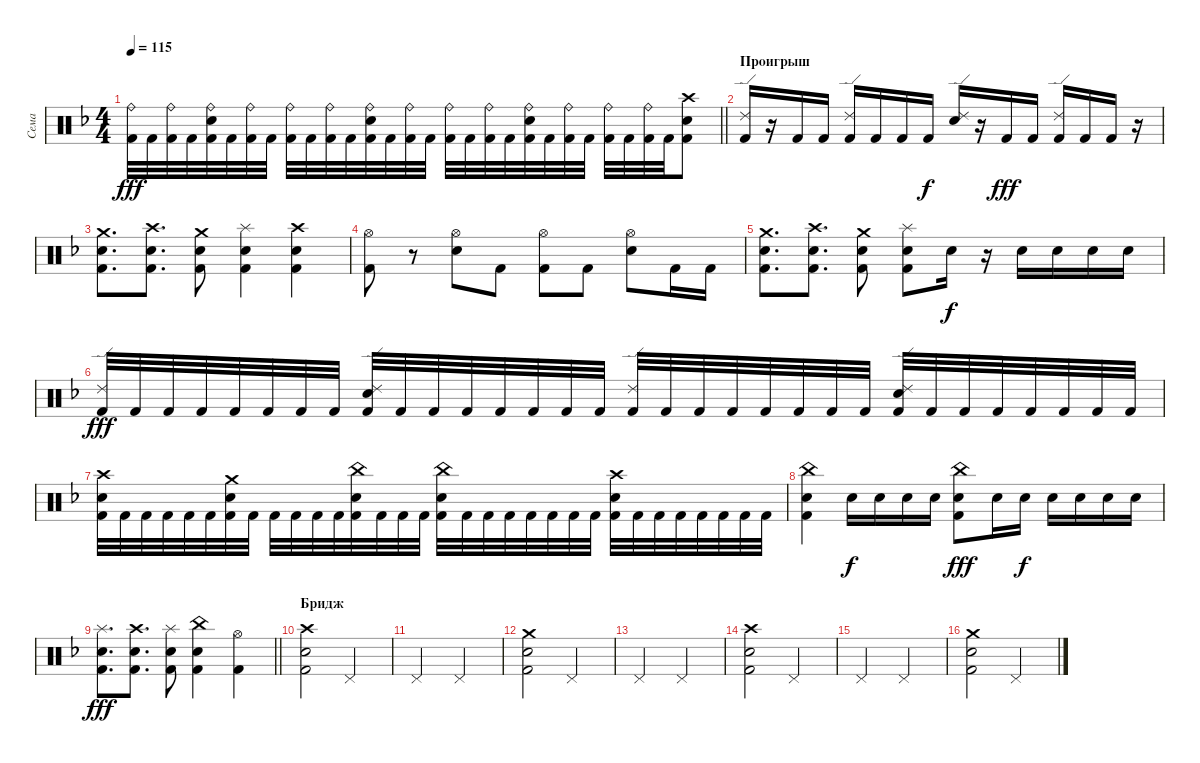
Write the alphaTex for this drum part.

\track ("Сема" "Сема") {instrument percussion}
\staff {score}
\articulation defaults
\ts (4 4)
\tempo 115
\clef neutral
\barLineRight lightlight
\ks dminor
("Ride (bell)" "Kick (hit) 2").32{dy fff} "Kick (hit) 2".32 ("Ride (bell)" "Kick (hit) 2").32 "Kick (hit) 2".32 ("Ride (bell)" "Electric Snare (hit)" "Kick (hit) 2").32 "Kick (hit) 2".32 ("Ride (bell)" "Kick (hit) 2").32 "Kick (hit) 2".32 ("Ride (bell)" "Kick (hit) 2").32 "Kick (hit) 2".32 ("Ride (bell)" "Kick (hit) 2").32 "Kick (hit) 2".32 ("Ride (bell)" "Electric Snare (hit)" "Kick (hit) 2").32 "Kick (hit) 2".32 ("Ride (bell)" "Kick (hit) 2").32 "Kick (hit) 2".32 ("Ride (bell)" "Kick (hit) 2").32 "Kick (hit) 2".32 ("Ride (bell)" "Kick (hit) 2").32 "Kick (hit) 2".32 ("Ride (bell)" "Electric Snare (hit)" "Kick (hit) 2").32 "Kick (hit) 2".32 ("Ride (bell)" "Kick (hit) 2").32 "Kick (hit) 2".32 ("Ride (bell)" "Kick (hit) 2").32 "Kick (hit) 2".32 ("Ride (bell)" "Kick (hit) 2").32 "Kick (hit) 2".32 ("Crash high (hit)" "Electric Snare (hit)" "Kick (hit) 2").8 |
\section ("" "Проигрыш")
("Ride (edge) 2" "Kick (hit) 2").16 r.16 "Kick (hit) 2".16 "Kick (hit) 2".16 ("Ride (edge) 2" "Kick (hit) 2").16 "Kick (hit) 2".16 "Kick (hit) 2".16 "Kick (hit) 2".16{dy f} ("Ride (edge) 2" "Electric Snare (hit)").16 r.16 "Kick (hit) 2".16{dy fff} "Kick (hit) 2".16 ("Ride (edge) 2" "Kick (hit) 2").16 "Kick (hit) 2".16 "Kick (hit) 2".16 r.16 |
("Crash medium (hit)" "Electric Snare (hit)" "Kick (hit) 2").8{d} ("Crash high (hit)" "Electric Snare (hit)" "Kick (hit) 2").8{d} ("Crash medium (hit)" "Electric Snare (hit)" "Kick (hit) 2").8 ("Splash (hit)" "Electric Snare (hit)" "Kick (hit) 2").4 ("Crash high (hit)" "Electric Snare (hit)" "Kick (hit) 2").4 |
("Hi-Hat (open)" "Kick (hit) 2").8 r.8 ("Hi-Hat (open)" "Electric Snare (hit)").8 "Kick (hit) 2".8 ("Hi-Hat (open)" "Kick (hit) 2").8 "Kick (hit) 2".8 ("Hi-Hat (open)" "Electric Snare (hit)").8 "Kick (hit) 2".16 "Kick (hit) 2".16 |
("Crash medium (hit)" "Electric Snare (hit)" "Kick (hit) 2").8{d} ("Crash high (hit)" "Electric Snare (hit)" "Kick (hit) 2").8{d} ("Crash medium (hit)" "Electric Snare (hit)" "Kick (hit) 2").8 ("Splash (hit)" "Electric Snare (hit)" "Kick (hit) 2").8 "Electric Snare (hit)".16{dy f} r.16 "Electric Snare (hit)".16 "Electric Snare (hit)".16 "Electric Snare (hit)".16 "Electric Snare (hit)".16 |
("Ride (edge) 2" "Kick (hit) 2").32{dy fff} "Kick (hit) 2".32 "Kick (hit) 2".32 "Kick (hit) 2".32 "Kick (hit) 2".32 "Kick (hit) 2".32 "Kick (hit) 2".32 "Kick (hit) 2".32 ("Ride (edge) 2" "Electric Snare (hit)" "Kick (hit) 2").32 "Kick (hit) 2".32 "Kick (hit) 2".32 "Kick (hit) 2".32 "Kick (hit) 2".32 "Kick (hit) 2".32 "Kick (hit) 2".32 "Kick (hit) 2".32 ("Ride (edge) 2" "Kick (hit) 2").32 "Kick (hit) 2".32 "Kick (hit) 2".32 "Kick (hit) 2".32 "Kick (hit) 2".32 "Kick (hit) 2".32 "Kick (hit) 2".32 "Kick (hit) 2".32 ("Ride (edge) 2" "Electric Snare (hit)" "Kick (hit) 2").32 "Kick (hit) 2".32 "Kick (hit) 2".32 "Kick (hit) 2".32 "Kick (hit) 2".32 "Kick (hit) 2".32 "Kick (hit) 2".32 "Kick (hit) 2".32 |
("Crash high (hit)" "Electric Snare (hit)" "Kick (hit) 2").32 "Kick (hit) 2".32 "Kick (hit) 2".32 "Kick (hit) 2".32 "Kick (hit) 2".32 "Kick (hit) 2".32 ("Crash medium (hit)" "Electric Snare (hit)" "Kick (hit) 2").32 "Kick (hit) 2".32 "Kick (hit) 2".32 "Kick (hit) 2".32 "Kick (hit) 2".32 "Kick (hit) 2".32 ("China (hit)" "Electric Snare (hit)" "Kick (hit) 2").32 "Kick (hit) 2".32 "Kick (hit) 2".32 "Kick (hit) 2".32 ("China (hit)" "Electric Snare (hit)" "Kick (hit) 2").32 "Kick (hit) 2".32 "Kick (hit) 2".32 "Kick (hit) 2".32 "Kick (hit) 2".32 "Kick (hit) 2".32 "Kick (hit) 2".32 "Kick (hit) 2".32 ("Crash high (hit)" "Electric Snare (hit)" "Kick (hit) 2").32 "Kick (hit) 2".32 "Kick (hit) 2".32 "Kick (hit) 2".32 "Kick (hit) 2".32 "Kick (hit) 2".32 "Kick (hit) 2".32 "Kick (hit) 2".32 |
("China (hit)" "Electric Snare (hit)" "Kick (hit) 2").4 "Electric Snare (hit)".16{dy f} "Electric Snare (hit)".16 "Electric Snare (hit)".16 "Electric Snare (hit)".16 ("China (hit)" "Electric Snare (hit)" "Kick (hit) 2").8{dy fff} "Electric Snare (hit)".16 "Electric Snare (hit)".16{dy f} "Electric Snare (hit)".16 "Electric Snare (hit)".16 "Electric Snare (hit)".16 "Electric Snare (hit)".16 |
\barLineRight lightlight
("Splash (hit)" "Electric Snare (hit)" "Kick (hit) 2").8{d dy fff} ("Crash high (hit)" "Electric Snare (hit)" "Kick (hit) 2").8{d} ("Splash (hit)" "Electric Snare (hit)" "Kick (hit) 2").8 ("China (hit)" "Electric Snare (hit)" "Kick (hit) 2").4 ("Hi-Hat (open)" "Kick (hit) 2").4 |
\section ("" "Бридж")
("Crash high (hit)" "Electric Snare (hit)" "Kick (hit) 2").2 "Pedal Hi-Hat (hit)".2 |
"Pedal Hi-Hat (hit)".2 "Pedal Hi-Hat (hit)".2 |
("Crash medium (hit)" "Electric Snare (hit)" "Kick (hit) 2").2 "Pedal Hi-Hat (hit)".2 |
"Pedal Hi-Hat (hit)".2 "Pedal Hi-Hat (hit)".2 |
("Crash high (hit)" "Electric Snare (hit)" "Kick (hit) 2").2 "Pedal Hi-Hat (hit)".2 |
"Pedal Hi-Hat (hit)".2 "Pedal Hi-Hat (hit)".2 |
("Crash medium (hit)" "Electric Snare (hit)" "Kick (hit) 2").2 "Pedal Hi-Hat (hit)".2
